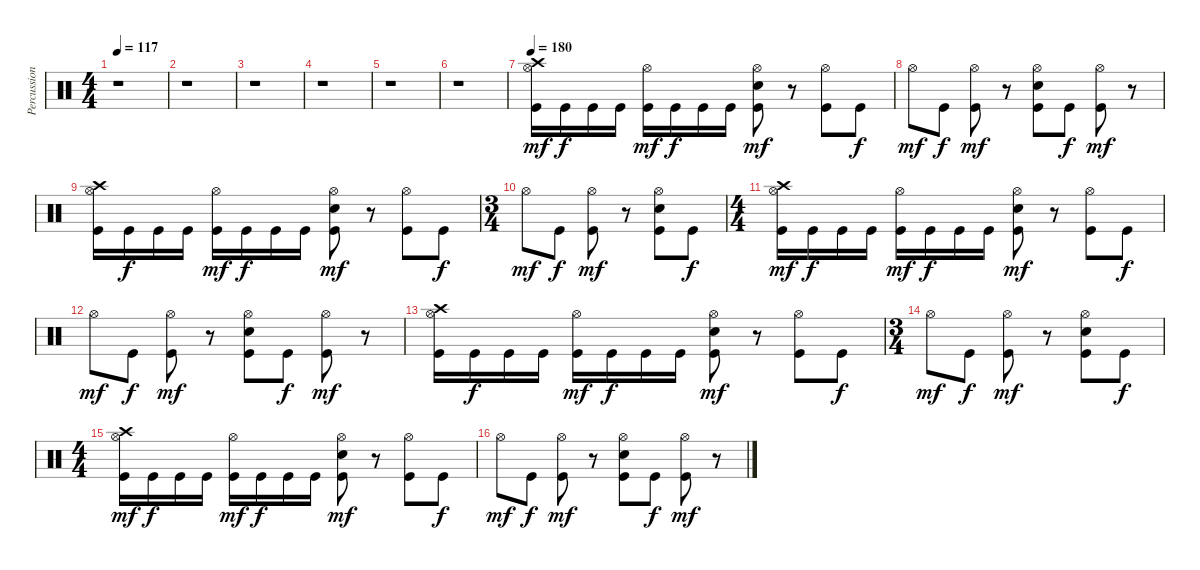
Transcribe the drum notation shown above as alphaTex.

\track ("Percussion" "Percussion") {instrument percussion}
\staff {score}
\articulation defaults
\ts (4 4)
\tempo 117
\clef neutral
\ks c
r.1{dy mf} |
r.1 |
r.1 |
r.1 |
r.1 |
r.1 |
\tempo 180
("Crash high (hit)" "Hi-Hat (open)" "Kick (hit)").16{volume 13 balance 8} "Kick (hit)".16{dy f} "Kick (hit)".16 "Kick (hit)".16 ("Hi-Hat (open)" "Kick (hit)").16{dy mf} "Kick (hit)".16{dy f} "Kick (hit)".16 "Kick (hit)".16 ("Hi-Hat (open)" "Snare (hit) 2" "Kick (hit)").8{dy mf} r.8 ("Hi-Hat (open)" "Kick (hit)").8 "Kick (hit)".8{dy f} |
"Hi-Hat (open)".8{dy mf} "Kick (hit)".8{dy f} ("Hi-Hat (open)" "Kick (hit)").8{dy mf} r.8 ("Hi-Hat (open)" "Snare (hit) 2" "Kick (hit)").8 "Kick (hit)".8{dy f} ("Hi-Hat (open)" "Kick (hit)").8{dy mf} r.8 |
("Crash high (hit)" "Hi-Hat (open)" "Kick (hit)").16 "Kick (hit)".16{dy f} "Kick (hit)".16 "Kick (hit)".16 ("Hi-Hat (open)" "Kick (hit)").16{dy mf} "Kick (hit)".16{dy f} "Kick (hit)".16 "Kick (hit)".16 ("Hi-Hat (open)" "Snare (hit) 2" "Kick (hit)").8{dy mf} r.8 ("Hi-Hat (open)" "Kick (hit)").8 "Kick (hit)".8{dy f} |
\ts (3 4)
"Hi-Hat (open)".8{dy mf} "Kick (hit)".8{dy f} ("Hi-Hat (open)" "Kick (hit)").8{dy mf} r.8 ("Hi-Hat (open)" "Snare (hit) 2" "Kick (hit)").8 "Kick (hit)".8{dy f} |
\ts (4 4)
("Crash high (hit)" "Hi-Hat (open)" "Kick (hit)").16{dy mf} "Kick (hit)".16{dy f} "Kick (hit)".16 "Kick (hit)".16 ("Hi-Hat (open)" "Kick (hit)").16{dy mf} "Kick (hit)".16{dy f} "Kick (hit)".16 "Kick (hit)".16 ("Hi-Hat (open)" "Snare (hit) 2" "Kick (hit)").8{dy mf} r.8 ("Hi-Hat (open)" "Kick (hit)").8 "Kick (hit)".8{dy f} |
"Hi-Hat (open)".8{dy mf} "Kick (hit)".8{dy f} ("Hi-Hat (open)" "Kick (hit)").8{dy mf} r.8 ("Hi-Hat (open)" "Snare (hit) 2" "Kick (hit)").8 "Kick (hit)".8{dy f} ("Hi-Hat (open)" "Kick (hit)").8{dy mf} r.8 |
("Crash high (hit)" "Hi-Hat (open)" "Kick (hit)").16 "Kick (hit)".16{dy f} "Kick (hit)".16 "Kick (hit)".16 ("Hi-Hat (open)" "Kick (hit)").16{dy mf} "Kick (hit)".16{dy f} "Kick (hit)".16 "Kick (hit)".16 ("Hi-Hat (open)" "Snare (hit) 2" "Kick (hit)").8{dy mf} r.8 ("Hi-Hat (open)" "Kick (hit)").8 "Kick (hit)".8{dy f} |
\ts (3 4)
"Hi-Hat (open)".8{dy mf} "Kick (hit)".8{dy f} ("Hi-Hat (open)" "Kick (hit)").8{dy mf} r.8 ("Hi-Hat (open)" "Snare (hit) 2" "Kick (hit)").8 "Kick (hit)".8{dy f} |
\ts (4 4)
("Crash high (hit)" "Hi-Hat (open)" "Kick (hit)").16{dy mf} "Kick (hit)".16{dy f} "Kick (hit)".16 "Kick (hit)".16 ("Hi-Hat (open)" "Kick (hit)").16{dy mf} "Kick (hit)".16{dy f} "Kick (hit)".16 "Kick (hit)".16 ("Hi-Hat (open)" "Snare (hit) 2" "Kick (hit)").8{dy mf} r.8 ("Hi-Hat (open)" "Kick (hit)").8 "Kick (hit)".8{dy f} |
"Hi-Hat (open)".8{dy mf} "Kick (hit)".8{dy f} ("Hi-Hat (open)" "Kick (hit)").8{dy mf} r.8 ("Hi-Hat (open)" "Snare (hit) 2" "Kick (hit)").8 "Kick (hit)".8{dy f} ("Hi-Hat (open)" "Kick (hit)").8{dy mf} r.8
